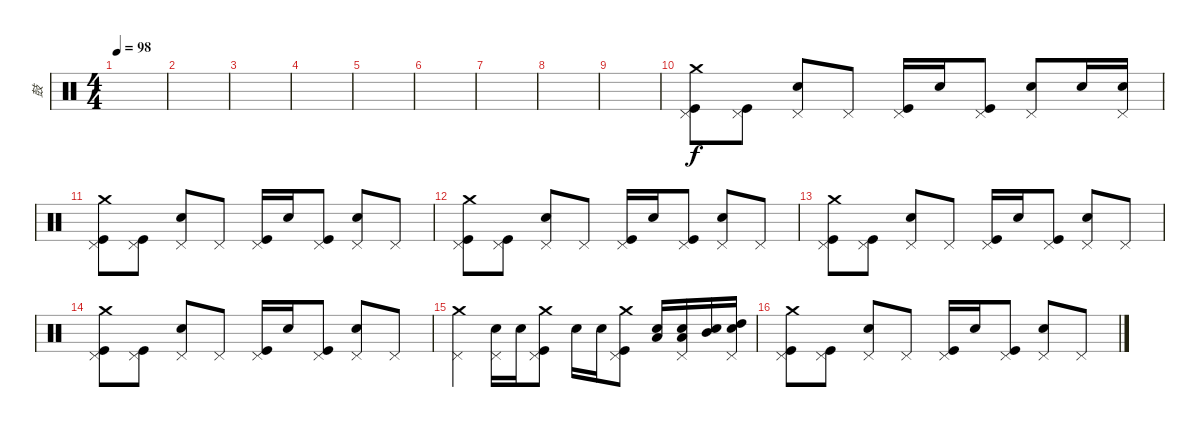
\track ("鼓" "鼓") {instrument percussion}
\staff {score}
\articulation defaults
\ts (4 4)
\tempo 98
\clef neutral
\ks c
|
|
|
|
|
|
|
|
|
("Pedal Hi-Hat (hit)" "Kick (hit)" "Crash medium (hit)").8 ("Pedal Hi-Hat (hit)" "Kick (hit)").8 ("Pedal Hi-Hat (hit)" "Electric Snare (hit)").8 "Pedal Hi-Hat (hit)".8 ("Pedal Hi-Hat (hit)" "Kick (hit)").16 "Electric Snare (hit)".16 ("Pedal Hi-Hat (hit)" "Kick (hit)").8 ("Pedal Hi-Hat (hit)" "Electric Snare (hit)").8 "Electric Snare (hit)".16 ("Pedal Hi-Hat (hit)" "Electric Snare (hit)").16 |
("Pedal Hi-Hat (hit)" "Kick (hit)" "Crash medium (hit)").8 ("Pedal Hi-Hat (hit)" "Kick (hit)").8 ("Pedal Hi-Hat (hit)" "Electric Snare (hit)").8 "Pedal Hi-Hat (hit)".8 ("Pedal Hi-Hat (hit)" "Kick (hit)").16 "Electric Snare (hit)".16 ("Pedal Hi-Hat (hit)" "Kick (hit)").8 ("Pedal Hi-Hat (hit)" "Electric Snare (hit)").8 "Pedal Hi-Hat (hit)".8 |
("Pedal Hi-Hat (hit)" "Kick (hit)" "Crash medium (hit)").8 ("Pedal Hi-Hat (hit)" "Kick (hit)").8 ("Pedal Hi-Hat (hit)" "Electric Snare (hit)").8 "Pedal Hi-Hat (hit)".8 ("Pedal Hi-Hat (hit)" "Kick (hit)").16 "Electric Snare (hit)".16 ("Pedal Hi-Hat (hit)" "Kick (hit)").8 ("Pedal Hi-Hat (hit)" "Electric Snare (hit)").8 "Pedal Hi-Hat (hit)".8 |
("Pedal Hi-Hat (hit)" "Kick (hit)" "Crash medium (hit)").8 ("Pedal Hi-Hat (hit)" "Kick (hit)").8 ("Pedal Hi-Hat (hit)" "Electric Snare (hit)").8 "Pedal Hi-Hat (hit)".8 ("Pedal Hi-Hat (hit)" "Kick (hit)").16 "Electric Snare (hit)".16 ("Pedal Hi-Hat (hit)" "Kick (hit)").8 ("Pedal Hi-Hat (hit)" "Electric Snare (hit)").8 "Pedal Hi-Hat (hit)".8 |
("Pedal Hi-Hat (hit)" "Kick (hit)" "Crash medium (hit)").8 ("Pedal Hi-Hat (hit)" "Kick (hit)").8 ("Pedal Hi-Hat (hit)" "Electric Snare (hit)").8 "Pedal Hi-Hat (hit)".8 ("Pedal Hi-Hat (hit)" "Kick (hit)").16 "Electric Snare (hit)".16 ("Pedal Hi-Hat (hit)" "Kick (hit)").8 ("Pedal Hi-Hat (hit)" "Electric Snare (hit)").8 "Pedal Hi-Hat (hit)".8 |
("Pedal Hi-Hat (hit)" "Crash medium (hit)").4 ("Pedal Hi-Hat (hit)" "Electric Snare (hit)").16 "Electric Snare (hit)".16 ("Pedal Hi-Hat (hit)" "Kick (hit)" "Crash medium (hit)").8 "Electric Snare (hit)".16 "Electric Snare (hit)".16 ("Pedal Hi-Hat (hit)" "Kick (hit)" "Crash medium (hit)").8 ("Low Tom (hit)" "Electric Snare (hit)").16 ("Pedal Hi-Hat (hit)" "Low Tom (hit)" "Electric Snare (hit)").16 ("Mid Tom (hit)" "Electric Snare (hit)").16 ("Pedal Hi-Hat (hit)" "High Tom (hit)" "Electric Snare (hit)").16 |
("Pedal Hi-Hat (hit)" "Kick (hit)" "Crash medium (hit)").8 ("Pedal Hi-Hat (hit)" "Kick (hit)").8 ("Pedal Hi-Hat (hit)" "Electric Snare (hit)").8 "Pedal Hi-Hat (hit)".8 ("Pedal Hi-Hat (hit)" "Kick (hit)").16 "Electric Snare (hit)".16 ("Pedal Hi-Hat (hit)" "Kick (hit)").8 ("Pedal Hi-Hat (hit)" "Electric Snare (hit)").8 "Pedal Hi-Hat (hit)".8
